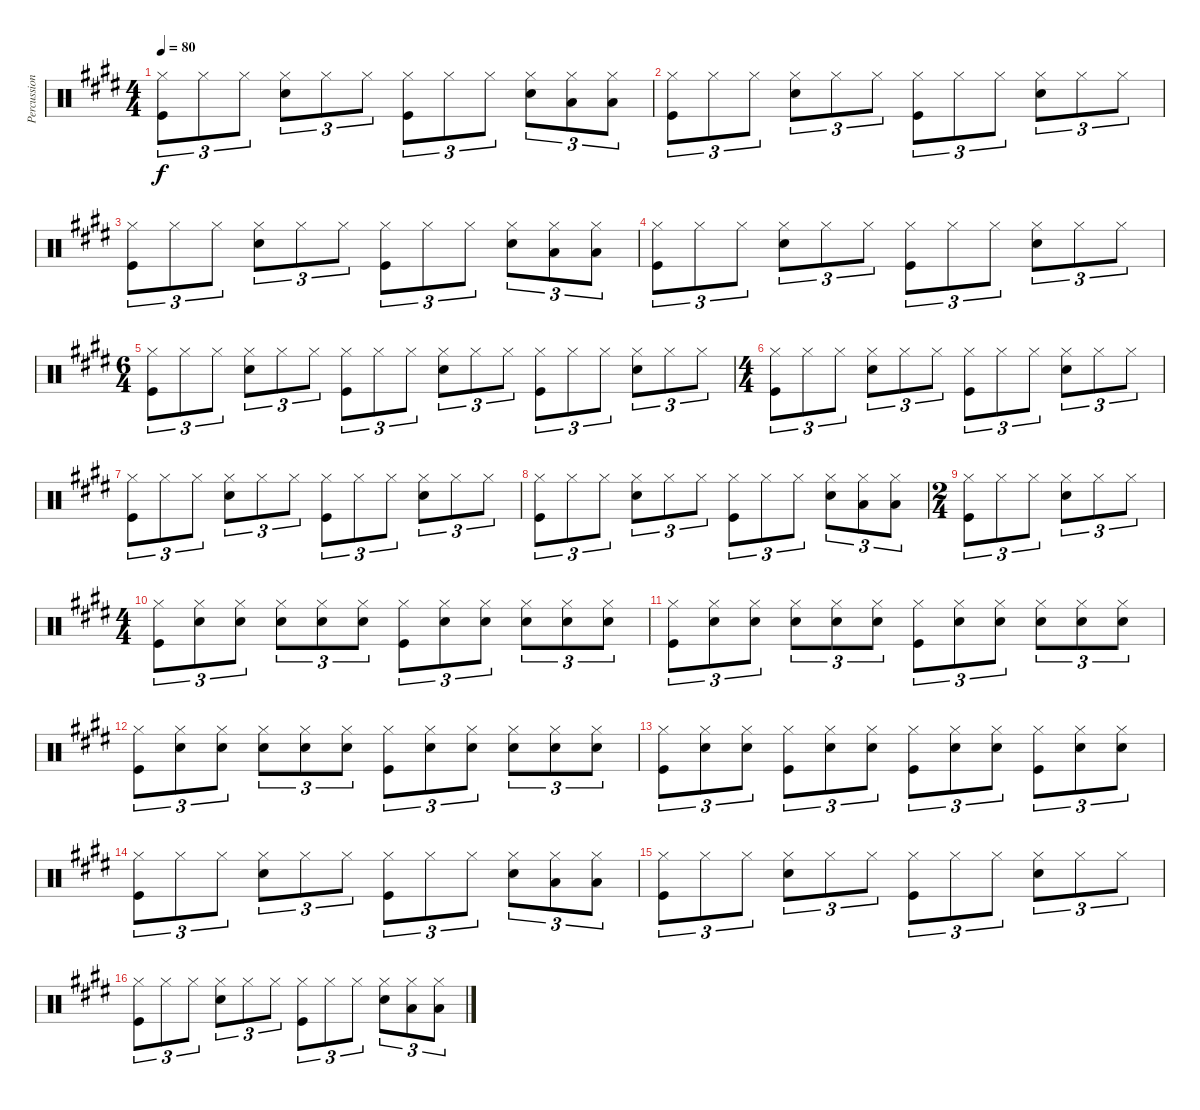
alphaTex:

\track ("Percussion" "Percussion") {instrument percussion}
\staff {score}
\articulation defaults
\ts (4 4)
\tempo 80
\clef neutral
\ks e
("Hi-Hat (closed)" "Kick (hit)").8{tu (3 2) dy f} "Hi-Hat (closed)".8{tu (3 2)} "Hi-Hat (closed)".8{tu (3 2)} ("Hi-Hat (closed)" "Snare (hit) 2").8{tu (3 2)} "Hi-Hat (closed)".8{tu (3 2)} "Hi-Hat (closed)".8{tu (3 2)} ("Hi-Hat (closed)" "Kick (hit)").8{tu (3 2)} "Hi-Hat (closed)".8{tu (3 2)} "Hi-Hat (closed)".8{tu (3 2)} ("Hi-Hat (closed)" "Snare (hit) 2").8{tu (3 2)} ("Hi-Hat (closed)" "Low Tom (hit)").8{tu (3 2)} ("Hi-Hat (closed)" "Low Tom (hit)").8{tu (3 2)} |
("Hi-Hat (closed)" "Kick (hit)").8{tu (3 2)} "Hi-Hat (closed)".8{tu (3 2)} "Hi-Hat (closed)".8{tu (3 2)} ("Hi-Hat (closed)" "Snare (hit) 2").8{tu (3 2)} "Hi-Hat (closed)".8{tu (3 2)} "Hi-Hat (closed)".8{tu (3 2)} ("Hi-Hat (closed)" "Kick (hit)").8{tu (3 2)} "Hi-Hat (closed)".8{tu (3 2)} "Hi-Hat (closed)".8{tu (3 2)} ("Hi-Hat (closed)" "Snare (hit) 2").8{tu (3 2)} "Hi-Hat (closed)".8{tu (3 2)} "Hi-Hat (closed)".8{tu (3 2)} |
("Hi-Hat (closed)" "Kick (hit)").8{tu (3 2)} "Hi-Hat (closed)".8{tu (3 2)} "Hi-Hat (closed)".8{tu (3 2)} ("Hi-Hat (closed)" "Snare (hit) 2").8{tu (3 2)} "Hi-Hat (closed)".8{tu (3 2)} "Hi-Hat (closed)".8{tu (3 2)} ("Hi-Hat (closed)" "Kick (hit)").8{tu (3 2)} "Hi-Hat (closed)".8{tu (3 2)} "Hi-Hat (closed)".8{tu (3 2)} ("Hi-Hat (closed)" "Snare (hit) 2").8{tu (3 2)} ("Hi-Hat (closed)" "Low Tom (hit)").8{tu (3 2)} ("Hi-Hat (closed)" "Low Tom (hit)").8{tu (3 2)} |
("Hi-Hat (closed)" "Kick (hit)").8{tu (3 2)} "Hi-Hat (closed)".8{tu (3 2)} "Hi-Hat (closed)".8{tu (3 2)} ("Hi-Hat (closed)" "Snare (hit) 2").8{tu (3 2)} "Hi-Hat (closed)".8{tu (3 2)} "Hi-Hat (closed)".8{tu (3 2)} ("Hi-Hat (closed)" "Kick (hit)").8{tu (3 2)} "Hi-Hat (closed)".8{tu (3 2)} "Hi-Hat (closed)".8{tu (3 2)} ("Hi-Hat (closed)" "Snare (hit) 2").8{tu (3 2)} "Hi-Hat (closed)".8{tu (3 2)} "Hi-Hat (closed)".8{tu (3 2)} |
\ts (6 4)
("Hi-Hat (closed)" "Kick (hit)").8{tu (3 2)} "Hi-Hat (closed)".8{tu (3 2)} "Hi-Hat (closed)".8{tu (3 2)} ("Hi-Hat (closed)" "Snare (hit) 2").8{tu (3 2)} "Hi-Hat (closed)".8{tu (3 2)} "Hi-Hat (closed)".8{tu (3 2)} ("Hi-Hat (closed)" "Kick (hit)").8{tu (3 2)} "Hi-Hat (closed)".8{tu (3 2)} "Hi-Hat (closed)".8{tu (3 2)} ("Hi-Hat (closed)" "Snare (hit) 2").8{tu (3 2)} "Hi-Hat (closed)".8{tu (3 2)} "Hi-Hat (closed)".8{tu (3 2)} ("Hi-Hat (closed)" "Kick (hit)").8{tu (3 2)} "Hi-Hat (closed)".8{tu (3 2)} "Hi-Hat (closed)".8{tu (3 2)} ("Hi-Hat (closed)" "Snare (hit) 2").8{tu (3 2)} "Hi-Hat (closed)".8{tu (3 2)} "Hi-Hat (closed)".8{tu (3 2)} |
\ts (4 4)
("Hi-Hat (closed)" "Kick (hit)").8{tu (3 2)} "Hi-Hat (closed)".8{tu (3 2)} "Hi-Hat (closed)".8{tu (3 2)} ("Hi-Hat (closed)" "Snare (hit) 2").8{tu (3 2)} "Hi-Hat (closed)".8{tu (3 2)} "Hi-Hat (closed)".8{tu (3 2)} ("Hi-Hat (closed)" "Kick (hit)").8{tu (3 2)} "Hi-Hat (closed)".8{tu (3 2)} "Hi-Hat (closed)".8{tu (3 2)} ("Hi-Hat (closed)" "Snare (hit) 2").8{tu (3 2)} "Hi-Hat (closed)".8{tu (3 2)} "Hi-Hat (closed)".8{tu (3 2)} |
("Hi-Hat (closed)" "Kick (hit)").8{tu (3 2)} "Hi-Hat (closed)".8{tu (3 2)} "Hi-Hat (closed)".8{tu (3 2)} ("Hi-Hat (closed)" "Snare (hit) 2").8{tu (3 2)} "Hi-Hat (closed)".8{tu (3 2)} "Hi-Hat (closed)".8{tu (3 2)} ("Hi-Hat (closed)" "Kick (hit)").8{tu (3 2)} "Hi-Hat (closed)".8{tu (3 2)} "Hi-Hat (closed)".8{tu (3 2)} ("Hi-Hat (closed)" "Snare (hit) 2").8{tu (3 2)} "Hi-Hat (closed)".8{tu (3 2)} "Hi-Hat (closed)".8{tu (3 2)} |
("Hi-Hat (closed)" "Kick (hit)").8{tu (3 2)} "Hi-Hat (closed)".8{tu (3 2)} "Hi-Hat (closed)".8{tu (3 2)} ("Hi-Hat (closed)" "Snare (hit) 2").8{tu (3 2)} "Hi-Hat (closed)".8{tu (3 2)} "Hi-Hat (closed)".8{tu (3 2)} ("Hi-Hat (closed)" "Kick (hit)").8{tu (3 2)} "Hi-Hat (closed)".8{tu (3 2)} "Hi-Hat (closed)".8{tu (3 2)} ("Hi-Hat (closed)" "Snare (hit) 2").8{tu (3 2)} ("Hi-Hat (closed)" "Low Tom (hit)").8{tu (3 2)} ("Hi-Hat (closed)" "Low Tom (hit)").8{tu (3 2)} |
\ts (2 4)
("Hi-Hat (closed)" "Kick (hit)").8{tu (3 2)} "Hi-Hat (closed)".8{tu (3 2)} "Hi-Hat (closed)".8{tu (3 2)} ("Hi-Hat (closed)" "Snare (hit) 2").8{tu (3 2)} "Hi-Hat (closed)".8{tu (3 2)} "Hi-Hat (closed)".8{tu (3 2)} |
\ts (4 4)
("Hi-Hat (closed)" "Kick (hit)").8{tu (3 2)} ("Hi-Hat (closed)" "Snare (hit) 2").8{tu (3 2)} ("Hi-Hat (closed)" "Snare (hit) 2").8{tu (3 2)} ("Hi-Hat (closed)" "Snare (hit) 2").8{tu (3 2)} ("Hi-Hat (closed)" "Snare (hit) 2").8{tu (3 2)} ("Hi-Hat (closed)" "Snare (hit) 2").8{tu (3 2)} ("Hi-Hat (closed)" "Kick (hit)").8{tu (3 2)} ("Hi-Hat (closed)" "Snare (hit) 2").8{tu (3 2)} ("Hi-Hat (closed)" "Snare (hit) 2").8{tu (3 2)} ("Hi-Hat (closed)" "Snare (hit) 2").8{tu (3 2)} ("Hi-Hat (closed)" "Snare (hit) 2").8{tu (3 2)} ("Hi-Hat (closed)" "Snare (hit) 2").8{tu (3 2)} |
("Hi-Hat (closed)" "Kick (hit)").8{tu (3 2)} ("Hi-Hat (closed)" "Snare (hit) 2").8{tu (3 2)} ("Hi-Hat (closed)" "Snare (hit) 2").8{tu (3 2)} ("Hi-Hat (closed)" "Snare (hit) 2").8{tu (3 2)} ("Hi-Hat (closed)" "Snare (hit) 2").8{tu (3 2)} ("Hi-Hat (closed)" "Snare (hit) 2").8{tu (3 2)} ("Hi-Hat (closed)" "Kick (hit)").8{tu (3 2)} ("Hi-Hat (closed)" "Snare (hit) 2").8{tu (3 2)} ("Hi-Hat (closed)" "Snare (hit) 2").8{tu (3 2)} ("Hi-Hat (closed)" "Snare (hit) 2").8{tu (3 2)} ("Hi-Hat (closed)" "Snare (hit) 2").8{tu (3 2)} ("Hi-Hat (closed)" "Snare (hit) 2").8{tu (3 2)} |
("Hi-Hat (closed)" "Kick (hit)").8{tu (3 2)} ("Hi-Hat (closed)" "Snare (hit) 2").8{tu (3 2)} ("Hi-Hat (closed)" "Snare (hit) 2").8{tu (3 2)} ("Hi-Hat (closed)" "Snare (hit) 2").8{tu (3 2)} ("Hi-Hat (closed)" "Snare (hit) 2").8{tu (3 2)} ("Hi-Hat (closed)" "Snare (hit) 2").8{tu (3 2)} ("Hi-Hat (closed)" "Kick (hit)").8{tu (3 2)} ("Hi-Hat (closed)" "Snare (hit) 2").8{tu (3 2)} ("Hi-Hat (closed)" "Snare (hit) 2").8{tu (3 2)} ("Hi-Hat (closed)" "Snare (hit) 2").8{tu (3 2)} ("Hi-Hat (closed)" "Snare (hit) 2").8{tu (3 2)} ("Hi-Hat (closed)" "Snare (hit) 2").8{tu (3 2)} |
("Hi-Hat (closed)" "Kick (hit)").8{tu (3 2)} ("Hi-Hat (closed)" "Snare (hit) 2").8{tu (3 2)} ("Hi-Hat (closed)" "Snare (hit) 2").8{tu (3 2)} ("Hi-Hat (closed)" "Kick (hit)").8{tu (3 2)} ("Hi-Hat (closed)" "Snare (hit) 2").8{tu (3 2)} ("Hi-Hat (closed)" "Snare (hit) 2").8{tu (3 2)} ("Hi-Hat (closed)" "Kick (hit)").8{tu (3 2)} ("Hi-Hat (closed)" "Snare (hit) 2").8{tu (3 2)} ("Hi-Hat (closed)" "Snare (hit) 2").8{tu (3 2)} ("Hi-Hat (closed)" "Kick (hit)").8{tu (3 2)} ("Hi-Hat (closed)" "Snare (hit) 2").8{tu (3 2)} ("Hi-Hat (closed)" "Snare (hit) 2").8{tu (3 2)} |
("Hi-Hat (closed)" "Kick (hit)").8{tu (3 2)} "Hi-Hat (closed)".8{tu (3 2)} "Hi-Hat (closed)".8{tu (3 2)} ("Hi-Hat (closed)" "Snare (hit) 2").8{tu (3 2)} "Hi-Hat (closed)".8{tu (3 2)} "Hi-Hat (closed)".8{tu (3 2)} ("Hi-Hat (closed)" "Kick (hit)").8{tu (3 2)} "Hi-Hat (closed)".8{tu (3 2)} "Hi-Hat (closed)".8{tu (3 2)} ("Hi-Hat (closed)" "Snare (hit) 2").8{tu (3 2)} ("Hi-Hat (closed)" "Low Tom (hit)").8{tu (3 2)} ("Hi-Hat (closed)" "Low Tom (hit)").8{tu (3 2)} |
("Hi-Hat (closed)" "Kick (hit)").8{tu (3 2)} "Hi-Hat (closed)".8{tu (3 2)} "Hi-Hat (closed)".8{tu (3 2)} ("Hi-Hat (closed)" "Snare (hit) 2").8{tu (3 2)} "Hi-Hat (closed)".8{tu (3 2)} "Hi-Hat (closed)".8{tu (3 2)} ("Hi-Hat (closed)" "Kick (hit)").8{tu (3 2)} "Hi-Hat (closed)".8{tu (3 2)} "Hi-Hat (closed)".8{tu (3 2)} ("Hi-Hat (closed)" "Snare (hit) 2").8{tu (3 2)} "Hi-Hat (closed)".8{tu (3 2)} "Hi-Hat (closed)".8{tu (3 2)} |
("Hi-Hat (closed)" "Kick (hit)").8{tu (3 2)} "Hi-Hat (closed)".8{tu (3 2)} "Hi-Hat (closed)".8{tu (3 2)} ("Hi-Hat (closed)" "Snare (hit) 2").8{tu (3 2)} "Hi-Hat (closed)".8{tu (3 2)} "Hi-Hat (closed)".8{tu (3 2)} ("Hi-Hat (closed)" "Kick (hit)").8{tu (3 2)} "Hi-Hat (closed)".8{tu (3 2)} "Hi-Hat (closed)".8{tu (3 2)} ("Hi-Hat (closed)" "Snare (hit) 2").8{tu (3 2)} ("Hi-Hat (closed)" "Low Tom (hit)").8{tu (3 2)} ("Hi-Hat (closed)" "Low Tom (hit)").8{tu (3 2)}
